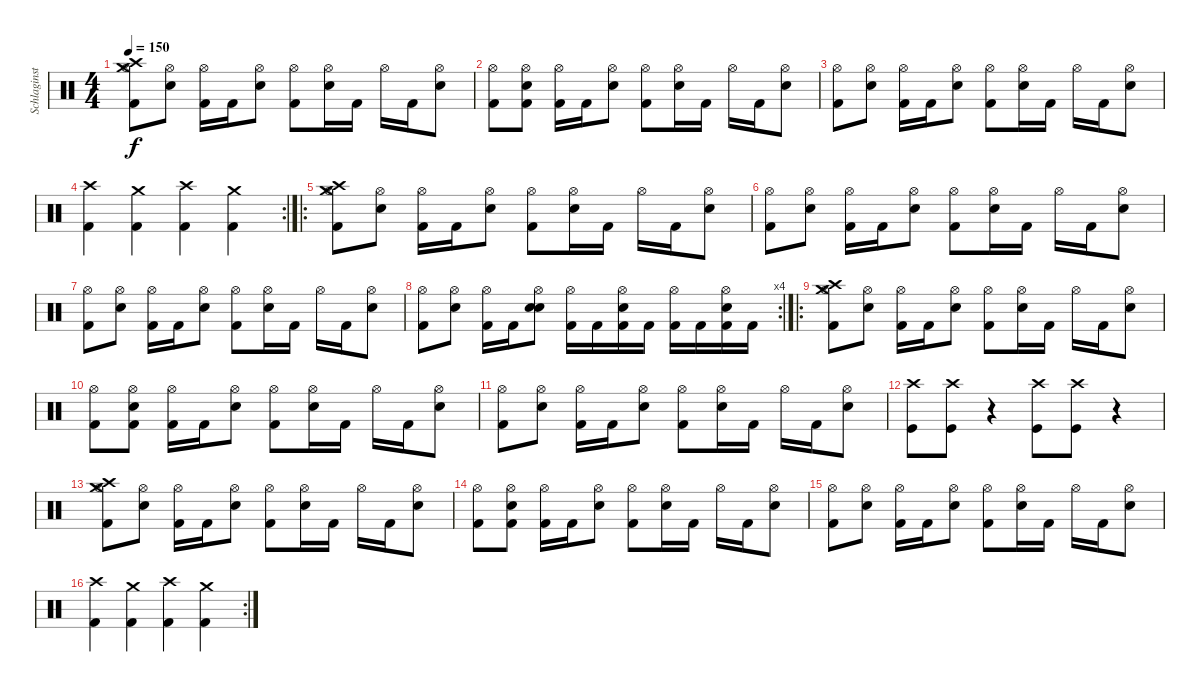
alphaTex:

\track ("Schlaginstrumente - Auswahl" "Schlaginst") {instrument percussion}
\staff {score}
\articulation defaults
\ts (4 4)
\tempo 150
\clef neutral
\ks c
("Crash high (hit)" "Crash medium (hit)" "Hi-Hat (open)" "Kick (hit) 2").8{dy f} ("Electric Snare (hit)" "Hi-Hat (open)").8 ("Hi-Hat (open)" "Kick (hit) 2").16 "Kick (hit) 2".16 ("Hi-Hat (open)" "Electric Snare (hit)").8 ("Hi-Hat (open)" "Kick (hit) 2").8 ("Hi-Hat (open)" "Electric Snare (hit)").16 "Kick (hit) 2".16 "Hi-Hat (open)".16 "Kick (hit) 2".16 ("Hi-Hat (open)" "Electric Snare (hit)").8 |
("Hi-Hat (open)" "Kick (hit) 2").8 ("Electric Snare (hit)" "Hi-Hat (open)" "Kick (hit) 2").8 ("Hi-Hat (open)" "Kick (hit) 2").16 "Kick (hit) 2".16 ("Hi-Hat (open)" "Electric Snare (hit)").8 ("Hi-Hat (open)" "Kick (hit) 2").8 ("Hi-Hat (open)" "Electric Snare (hit)").16 "Kick (hit) 2".16 "Hi-Hat (open)".16 "Kick (hit) 2".16 ("Hi-Hat (open)" "Electric Snare (hit)").8 |
("Hi-Hat (open)" "Kick (hit) 2").8 ("Electric Snare (hit)" "Hi-Hat (open)").8 ("Hi-Hat (open)" "Kick (hit) 2").16 "Kick (hit) 2".16 ("Hi-Hat (open)" "Electric Snare (hit)").8 ("Hi-Hat (open)" "Kick (hit) 2").8 ("Hi-Hat (open)" "Electric Snare (hit)").16 "Kick (hit) 2".16 "Hi-Hat (open)".16 "Kick (hit) 2".16 ("Hi-Hat (open)" "Electric Snare (hit)").8 |
\rc 2
("Crash high (hit)" "Kick (hit) 2").4 ("Crash medium (hit)" "Kick (hit) 2").4 ("Crash high (hit)" "Kick (hit) 2").4 ("Crash medium (hit)" "Kick (hit) 2").4 |
\ro
("Crash high (hit)" "Crash medium (hit)" "Hi-Hat (open)" "Kick (hit) 2").8 ("Electric Snare (hit)" "Hi-Hat (open)").8 ("Hi-Hat (open)" "Kick (hit) 2").16 "Kick (hit) 2".16 ("Hi-Hat (open)" "Electric Snare (hit)").8 ("Hi-Hat (open)" "Kick (hit) 2").8 ("Hi-Hat (open)" "Electric Snare (hit)").16 "Kick (hit) 2".16 "Hi-Hat (open)".16 "Kick (hit) 2".16 ("Hi-Hat (open)" "Electric Snare (hit)").8 |
("Hi-Hat (open)" "Kick (hit) 2").8 ("Electric Snare (hit)" "Hi-Hat (open)").8 ("Hi-Hat (open)" "Kick (hit) 2").16 "Kick (hit) 2".16 ("Hi-Hat (open)" "Electric Snare (hit)").8 ("Hi-Hat (open)" "Kick (hit) 2").8 ("Hi-Hat (open)" "Electric Snare (hit)").16 "Kick (hit) 2".16 "Hi-Hat (open)".16 "Kick (hit) 2".16 ("Hi-Hat (open)" "Electric Snare (hit)").8 |
("Hi-Hat (open)" "Kick (hit) 2").8 ("Electric Snare (hit)" "Hi-Hat (open)").8 ("Hi-Hat (open)" "Kick (hit) 2").16 "Kick (hit) 2".16 ("Hi-Hat (open)" "Electric Snare (hit)").8 ("Hi-Hat (open)" "Kick (hit) 2").8 ("Hi-Hat (open)" "Electric Snare (hit)").16 "Kick (hit) 2".16 "Hi-Hat (open)".16 "Kick (hit) 2".16 ("Hi-Hat (open)" "Electric Snare (hit)").8 |
\rc 4
("Hi-Hat (open)" "Kick (hit) 2").8 ("Electric Snare (hit)" "Hi-Hat (open)").8 ("Hi-Hat (open)" "Kick (hit) 2").16 "Kick (hit) 2".16 ("Electric Snare (hit)" "Hi-Hat (open)" "Electric Snare (hit)").8 ("Hi-Hat (open)" "Kick (hit) 2").16 "Kick (hit) 2".16 ("Electric Snare (hit)" "Hi-Hat (open)" "Kick (hit) 2").16 "Kick (hit) 2".16 ("Hi-Hat (open)" "Kick (hit) 2").16 "Kick (hit) 2".16 ("Electric Snare (hit)" "Hi-Hat (open)" "Kick (hit) 2").16 "Kick (hit) 2".16 |
\ro
("Crash high (hit)" "Crash medium (hit)" "Hi-Hat (open)" "Kick (hit) 2").8 ("Electric Snare (hit)" "Hi-Hat (open)").8 ("Hi-Hat (open)" "Kick (hit) 2").16 "Kick (hit) 2".16 ("Hi-Hat (open)" "Electric Snare (hit)").8 ("Hi-Hat (open)" "Kick (hit) 2").8 ("Hi-Hat (open)" "Electric Snare (hit)").16 "Kick (hit) 2".16 "Hi-Hat (open)".16 "Kick (hit) 2".16 ("Hi-Hat (open)" "Electric Snare (hit)").8 |
("Hi-Hat (open)" "Kick (hit) 2").8 ("Electric Snare (hit)" "Hi-Hat (open)" "Kick (hit) 2").8 ("Hi-Hat (open)" "Kick (hit) 2").16 "Kick (hit) 2".16 ("Hi-Hat (open)" "Electric Snare (hit)").8 ("Hi-Hat (open)" "Kick (hit) 2").8 ("Hi-Hat (open)" "Electric Snare (hit)").16 "Kick (hit) 2".16 "Hi-Hat (open)".16 "Kick (hit) 2".16 ("Hi-Hat (open)" "Electric Snare (hit)").8 |
("Hi-Hat (open)" "Kick (hit) 2").8 ("Electric Snare (hit)" "Hi-Hat (open)").8 ("Hi-Hat (open)" "Kick (hit) 2").16 "Kick (hit) 2".16 ("Hi-Hat (open)" "Electric Snare (hit)").8 ("Hi-Hat (open)" "Kick (hit) 2").8 ("Hi-Hat (open)" "Electric Snare (hit)").16 "Kick (hit) 2".16 "Hi-Hat (open)".16 "Kick (hit) 2".16 ("Hi-Hat (open)" "Electric Snare (hit)").8 |
("Crash high (hit)" "Kick (hit)").8 ("Crash high (hit)" "Kick (hit)").8 r.4 ("Crash high (hit)" "Kick (hit)").8 ("Crash high (hit)" "Kick (hit)").8 r.4 |
("Crash high (hit)" "Crash medium (hit)" "Hi-Hat (open)" "Kick (hit) 2").8 ("Electric Snare (hit)" "Hi-Hat (open)").8 ("Hi-Hat (open)" "Kick (hit) 2").16 "Kick (hit) 2".16 ("Hi-Hat (open)" "Electric Snare (hit)").8 ("Hi-Hat (open)" "Kick (hit) 2").8 ("Hi-Hat (open)" "Electric Snare (hit)").16 "Kick (hit) 2".16 "Hi-Hat (open)".16 "Kick (hit) 2".16 ("Hi-Hat (open)" "Electric Snare (hit)").8 |
("Hi-Hat (open)" "Kick (hit) 2").8 ("Electric Snare (hit)" "Hi-Hat (open)" "Kick (hit) 2").8 ("Hi-Hat (open)" "Kick (hit) 2").16 "Kick (hit) 2".16 ("Hi-Hat (open)" "Electric Snare (hit)").8 ("Hi-Hat (open)" "Kick (hit) 2").8 ("Hi-Hat (open)" "Electric Snare (hit)").16 "Kick (hit) 2".16 "Hi-Hat (open)".16 "Kick (hit) 2".16 ("Hi-Hat (open)" "Electric Snare (hit)").8 |
("Hi-Hat (open)" "Kick (hit) 2").8 ("Electric Snare (hit)" "Hi-Hat (open)").8 ("Hi-Hat (open)" "Kick (hit) 2").16 "Kick (hit) 2".16 ("Hi-Hat (open)" "Electric Snare (hit)").8 ("Hi-Hat (open)" "Kick (hit) 2").8 ("Hi-Hat (open)" "Electric Snare (hit)").16 "Kick (hit) 2".16 "Hi-Hat (open)".16 "Kick (hit) 2".16 ("Hi-Hat (open)" "Electric Snare (hit)").8 |
\rc 2
("Crash high (hit)" "Kick (hit) 2").4 ("Crash medium (hit)" "Kick (hit) 2").4 ("Crash high (hit)" "Kick (hit) 2").4 ("Crash medium (hit)" "Kick (hit) 2").4
